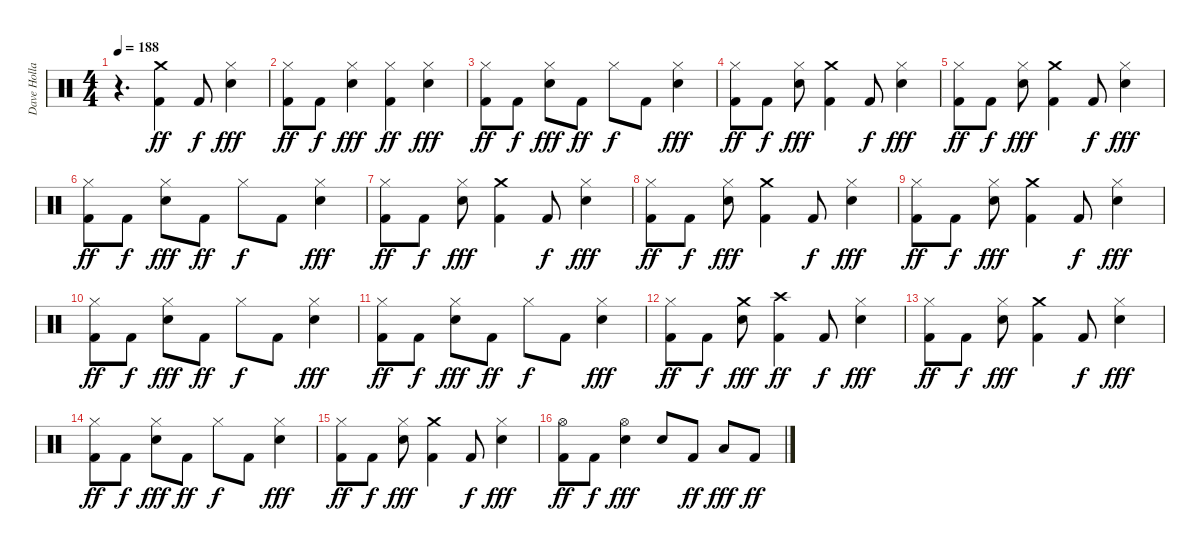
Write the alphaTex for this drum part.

\track ("Dave Holland" "Dave Holla") {instrument percussion}
\staff {score}
\articulation defaults
\ts (4 4)
\tempo 188
\clef neutral
\ks c
r.4{d dy fff} ("Crash medium (hit)" "Kick (hit) 2").4{dy ff} "Kick (hit) 2".8{dy f} ("Snare (hit) 2" "Hi-Hat (closed)").4{dy fff} |
("Kick (hit) 2" "Hi-Hat (closed)").8{dy ff} "Kick (hit) 2".8{dy f} ("Snare (hit) 2" "Hi-Hat (closed)").4{dy fff} ("Kick (hit) 2" "Hi-Hat (closed)").4{dy ff} ("Snare (hit) 2" "Hi-Hat (closed)").4{dy fff} |
("Kick (hit) 2" "Hi-Hat (closed)").8{dy ff} "Kick (hit) 2".8{dy f} ("Snare (hit) 2" "Hi-Hat (closed)").8{dy fff} "Kick (hit) 2".8{dy ff} "Hi-Hat (closed)".8{dy f} "Kick (hit) 2".8 ("Snare (hit) 2" "Hi-Hat (closed)").4{dy fff} |
("Kick (hit) 2" "Hi-Hat (closed)").8{dy ff} "Kick (hit) 2".8{dy f} ("Snare (hit) 2" "Hi-Hat (closed)").8{dy fff} ("Kick (hit) 2" "Crash medium (hit)").4 "Kick (hit) 2".8{dy f} ("Snare (hit) 2" "Hi-Hat (closed)").4{dy fff} |
("Kick (hit) 2" "Hi-Hat (closed)").8{dy ff} "Kick (hit) 2".8{dy f} ("Snare (hit) 2" "Hi-Hat (closed)").8{dy fff} ("Kick (hit) 2" "Crash medium (hit)").4 "Kick (hit) 2".8{dy f} ("Snare (hit) 2" "Hi-Hat (closed)").4{dy fff} |
("Kick (hit) 2" "Hi-Hat (closed)").8{dy ff} "Kick (hit) 2".8{dy f} ("Snare (hit) 2" "Hi-Hat (closed)").8{dy fff} "Kick (hit) 2".8{dy ff} "Hi-Hat (closed)".8{dy f} "Kick (hit) 2".8 ("Snare (hit) 2" "Hi-Hat (closed)").4{dy fff} |
("Kick (hit) 2" "Hi-Hat (closed)").8{dy ff} "Kick (hit) 2".8{dy f} ("Snare (hit) 2" "Hi-Hat (closed)").8{dy fff} ("Kick (hit) 2" "Crash medium (hit)").4 "Kick (hit) 2".8{dy f} ("Snare (hit) 2" "Hi-Hat (closed)").4{dy fff} |
("Kick (hit) 2" "Hi-Hat (closed)").8{dy ff} "Kick (hit) 2".8{dy f} ("Snare (hit) 2" "Hi-Hat (closed)").8{dy fff} ("Kick (hit) 2" "Crash medium (hit)").4 "Kick (hit) 2".8{dy f} ("Snare (hit) 2" "Hi-Hat (closed)").4{dy fff} |
("Kick (hit) 2" "Hi-Hat (closed)").8{dy ff} "Kick (hit) 2".8{dy f} ("Snare (hit) 2" "Hi-Hat (closed)").8{dy fff} ("Kick (hit) 2" "Crash medium (hit)").4 "Kick (hit) 2".8{dy f} ("Snare (hit) 2" "Hi-Hat (closed)").4{dy fff} |
("Kick (hit) 2" "Hi-Hat (closed)").8{dy ff} "Kick (hit) 2".8{dy f} ("Snare (hit) 2" "Hi-Hat (closed)").8{dy fff} "Kick (hit) 2".8{dy ff} "Hi-Hat (closed)".8{dy f} "Kick (hit) 2".8 ("Snare (hit) 2" "Hi-Hat (closed)").4{dy fff} |
("Kick (hit) 2" "Hi-Hat (closed)").8{dy ff} "Kick (hit) 2".8{dy f} ("Snare (hit) 2" "Hi-Hat (closed)").8{dy fff} "Kick (hit) 2".8{dy ff} "Hi-Hat (closed)".8{dy f} "Kick (hit) 2".8 ("Snare (hit) 2" "Hi-Hat (closed)").4{dy fff} |
("Kick (hit) 2" "Hi-Hat (closed)").8{dy ff} "Kick (hit) 2".8{dy f} ("Crash medium (hit)" "Snare (hit) 2").8{dy fff} ("Crash high (hit)" "Kick (hit) 2").4{dy ff} "Kick (hit) 2".8{dy f} ("Snare (hit) 2" "Hi-Hat (closed)").4{dy fff} |
("Kick (hit) 2" "Hi-Hat (closed)").8{dy ff} "Kick (hit) 2".8{dy f} ("Snare (hit) 2" "Hi-Hat (closed)").8{dy fff} ("Kick (hit) 2" "Crash medium (hit)").4 "Kick (hit) 2".8{dy f} ("Snare (hit) 2" "Hi-Hat (closed)").4{dy fff} |
("Kick (hit) 2" "Hi-Hat (closed)").8{dy ff} "Kick (hit) 2".8{dy f} ("Snare (hit) 2" "Hi-Hat (closed)").8{dy fff} "Kick (hit) 2".8{dy ff} "Hi-Hat (closed)".8{dy f} "Kick (hit) 2".8 ("Snare (hit) 2" "Hi-Hat (closed)").4{dy fff} |
("Kick (hit) 2" "Hi-Hat (closed)").8{dy ff} "Kick (hit) 2".8{dy f} ("Snare (hit) 2" "Hi-Hat (closed)").8{dy fff} ("Kick (hit) 2" "Crash medium (hit)").4 "Kick (hit) 2".8{dy f} ("Snare (hit) 2" "Hi-Hat (closed)").4{dy fff} |
("Kick (hit) 2" "Hi-Hat (open)").8{dy ff} "Kick (hit) 2".8{dy f} ("Snare (hit) 2" "Hi-Hat (open)").4{dy fff} "Snare (hit) 2".8 "Kick (hit) 2".8{dy ff} "Low Tom (hit)".8{dy fff} "Kick (hit) 2".8{dy ff}
